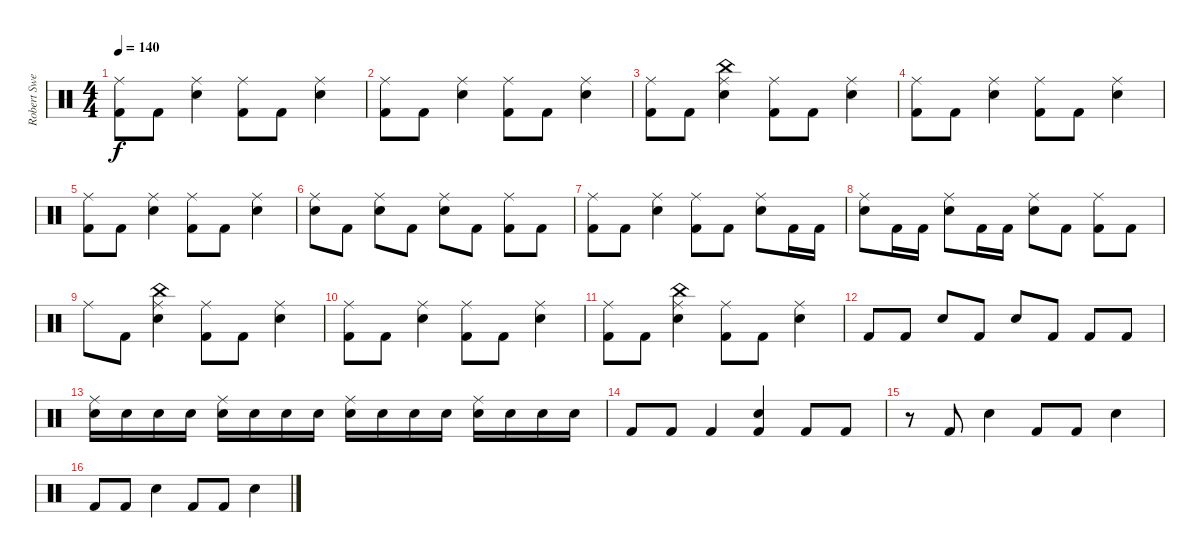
\track ("Robert Sweet" "Robert Swe") {instrument percussion}
\staff {score}
\articulation defaults
\ts (4 4)
\tempo 140
\clef neutral
\ks c
("Kick (hit) 2"{t} "Ride (middle)").8{dy f} "Kick (hit) 2".8 ("Electric Snare (hit)" "Ride (middle)").4 ("Kick (hit) 2" "Ride (middle)").8 "Kick (hit) 2".8 ("Electric Snare (hit)" "Ride (middle)").4 |
("Kick (hit) 2" "Ride (middle)").8 "Kick (hit) 2".8 ("Electric Snare (hit)" "Ride (middle)").4 ("Kick (hit) 2" "Ride (middle)").8 "Kick (hit) 2".8 ("Electric Snare (hit)" "Ride (middle)").4 |
("Kick (hit) 2" "Ride (middle)").8 "Kick (hit) 2".8 ("Electric Snare (hit)" "China (hit)" "Ride (middle)").4 ("Kick (hit) 2" "Ride (middle)").8 "Kick (hit) 2".8 ("Electric Snare (hit)" "Ride (middle)").4 |
("Kick (hit) 2" "Ride (middle)").8 "Kick (hit) 2".8 ("Electric Snare (hit)" "Ride (middle)").4 ("Kick (hit) 2" "Ride (middle)").8 "Kick (hit) 2".8 ("Electric Snare (hit)" "Ride (middle)").4 |
("Kick (hit) 2" "Ride (middle)").8 "Kick (hit) 2".8 ("Electric Snare (hit)" "Ride (middle)").4 ("Kick (hit) 2" "Ride (middle)").8 "Kick (hit) 2".8 ("Electric Snare (hit)" "Ride (middle)").4 |
("Electric Snare (hit)" "Ride (middle)").8 "Kick (hit) 2".8 ("Electric Snare (hit)" "Ride (middle)").8 "Kick (hit) 2".8 ("Electric Snare (hit)" "Ride (middle)").8 "Kick (hit) 2".8 ("Kick (hit) 2" "Ride (middle)").8 "Kick (hit) 2".8 |
("Kick (hit) 2" "Ride (middle)").8 "Kick (hit) 2".8 ("Electric Snare (hit)" "Ride (middle)").4 ("Kick (hit) 2" "Ride (middle)").8 "Kick (hit) 2".8 ("Electric Snare (hit)" "Ride (middle)").8 "Kick (hit) 2".16 "Kick (hit) 2".16 |
("Electric Snare (hit)" "Ride (middle)").8 "Kick (hit) 2".16 "Kick (hit) 2".16 ("Electric Snare (hit)" "Ride (middle)").8 "Kick (hit) 2".16 "Kick (hit) 2".16 ("Electric Snare (hit)" "Ride (middle)").8 "Kick (hit) 2".8 ("Kick (hit) 2" "Ride (middle)").8 "Kick (hit) 2".8 |
"Ride (middle)".8 "Kick (hit) 2".8 ("Electric Snare (hit)" "China (hit)" "Ride (middle)").4 ("Kick (hit) 2" "Ride (middle)").8 "Kick (hit) 2".8 ("Electric Snare (hit)" "Ride (middle)").4 |
("Kick (hit) 2" "Ride (middle)").8 "Kick (hit) 2".8 ("Electric Snare (hit)" "Ride (middle)").4 ("Kick (hit) 2" "Ride (middle)").8 "Kick (hit) 2".8 ("Electric Snare (hit)" "Ride (middle)").4 |
("Kick (hit) 2" "Ride (middle)").8 "Kick (hit) 2".8 ("Electric Snare (hit)" "China (hit)" "Ride (middle)").4 ("Kick (hit) 2" "Ride (middle)").8 "Kick (hit) 2".8 ("Electric Snare (hit)" "Ride (middle)").4 |
"Kick (hit) 2".8 "Kick (hit) 2".8 "Electric Snare (hit)".8 "Kick (hit) 2".8 "Electric Snare (hit)".8 "Kick (hit) 2".8 "Kick (hit) 2".8 "Kick (hit) 2".8 |
("Electric Snare (hit)" "Ride (middle)").16 "Electric Snare (hit)".16 "Electric Snare (hit)".16 "Electric Snare (hit)".16 ("Electric Snare (hit)" "Ride (middle)").16 "Electric Snare (hit)".16 "Electric Snare (hit)".16 "Electric Snare (hit)".16 ("Electric Snare (hit)" "Ride (middle)").16 "Electric Snare (hit)".16 "Electric Snare (hit)".16 "Electric Snare (hit)".16 ("Electric Snare (hit)" "Ride (middle)").16 "Electric Snare (hit)".16 "Electric Snare (hit)".16 "Electric Snare (hit)".16 |
"Kick (hit) 2".8 "Kick (hit) 2".8 "Kick (hit) 2".4 ("Kick (hit) 2" "Electric Snare (hit)").4 "Kick (hit) 2".8 "Kick (hit) 2".8 |
r.8 "Kick (hit) 2".8 "Electric Snare (hit)".4 "Kick (hit) 2".8 "Kick (hit) 2".8 "Electric Snare (hit)".4 |
"Kick (hit) 2".8 "Kick (hit) 2".8 "Electric Snare (hit)".4 "Kick (hit) 2".8 "Kick (hit) 2".8 "Electric Snare (hit)".4
